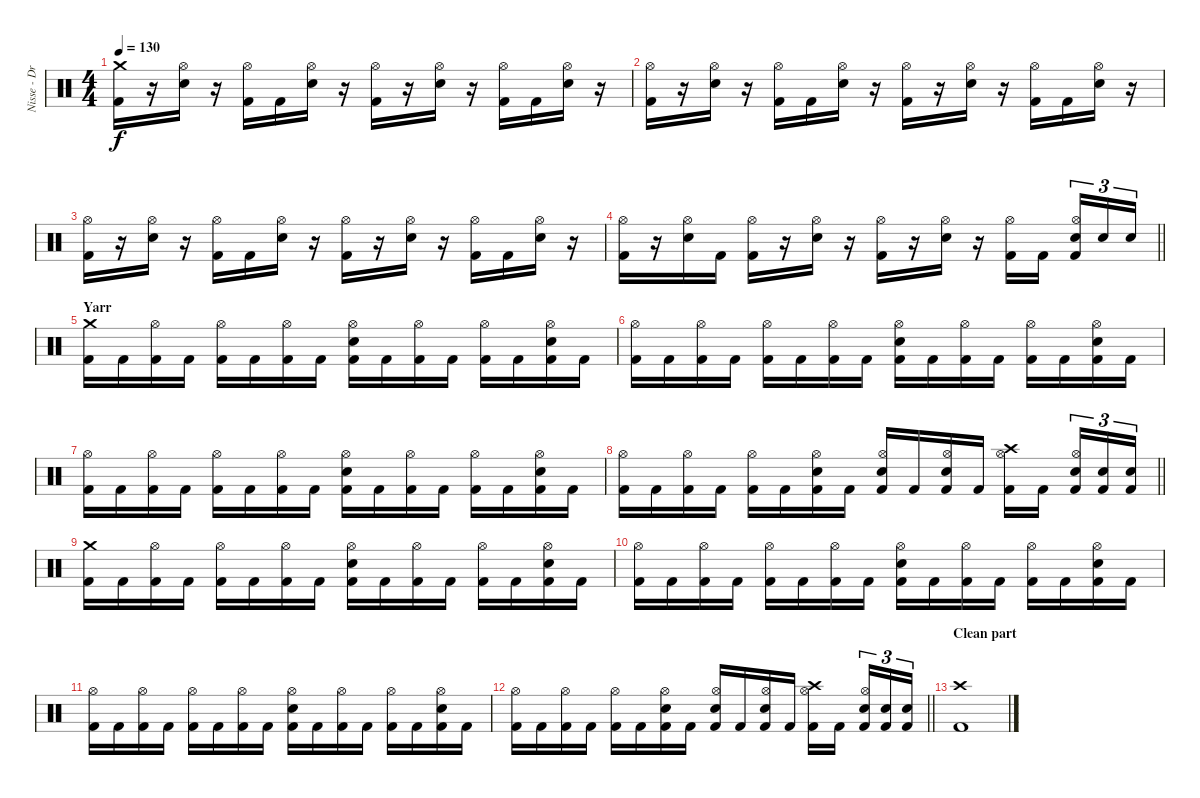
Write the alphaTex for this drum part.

\track ("Nisse - Drums" "Nisse - Dr") {instrument percussion}
\staff {score}
\articulation defaults
\ts (4 4)
\tempo 130
\clef neutral
\ks c
("Crash medium (hit)" "Kick (hit) 2").16{dy f} r.16 ("Hi-Hat (open)" "Electric Snare (hit)").16 r.16 ("Hi-Hat (open)" "Kick (hit) 2").16 "Kick (hit) 2".16 ("Hi-Hat (open)" "Electric Snare (hit)").16 r.16 ("Hi-Hat (open)" "Kick (hit) 2").16 r.16 ("Hi-Hat (open)" "Electric Snare (hit)").16 r.16 ("Hi-Hat (open)" "Kick (hit) 2").16 "Kick (hit) 2".16 ("Hi-Hat (open)" "Electric Snare (hit)").16 r.16 |
("Hi-Hat (open)" "Kick (hit) 2").16 r.16 ("Hi-Hat (open)" "Electric Snare (hit)").16 r.16 ("Hi-Hat (open)" "Kick (hit) 2").16 "Kick (hit) 2".16 ("Hi-Hat (open)" "Electric Snare (hit)").16 r.16 ("Hi-Hat (open)" "Kick (hit) 2").16 r.16 ("Hi-Hat (open)" "Electric Snare (hit)").16 r.16 ("Hi-Hat (open)" "Kick (hit) 2").16 "Kick (hit) 2".16 ("Hi-Hat (open)" "Electric Snare (hit)").16 r.16 |
("Hi-Hat (open)" "Kick (hit) 2").16 r.16 ("Hi-Hat (open)" "Electric Snare (hit)").16 r.16 ("Hi-Hat (open)" "Kick (hit) 2").16 "Kick (hit) 2".16 ("Hi-Hat (open)" "Electric Snare (hit)").16 r.16 ("Hi-Hat (open)" "Kick (hit) 2").16 r.16 ("Hi-Hat (open)" "Electric Snare (hit)").16 r.16 ("Hi-Hat (open)" "Kick (hit) 2").16 "Kick (hit) 2".16 ("Hi-Hat (open)" "Electric Snare (hit)").16 r.16 |
\barLineRight lightlight
("Hi-Hat (open)" "Kick (hit) 2").16 r.16 ("Hi-Hat (open)" "Electric Snare (hit)").16 "Kick (hit) 2".16 ("Hi-Hat (open)" "Kick (hit) 2").16 r.16 ("Hi-Hat (open)" "Electric Snare (hit)").16 r.16 ("Hi-Hat (open)" "Kick (hit) 2").16 r.16 ("Hi-Hat (open)" "Electric Snare (hit)").16 r.16 ("Hi-Hat (open)" "Kick (hit) 2").16 "Kick (hit) 2".16{beam splitsecondary} ("Hi-Hat (open)" "Electric Snare (hit)" "Kick (hit) 2").16{tu (3 2)} "Electric Snare (hit)".16{tu (3 2)} "Electric Snare (hit)".16{tu (3 2)} |
\section ("" "Yarr")
("Crash medium (hit)" "Kick (hit) 2").16 "Kick (hit) 2".16 ("Hi-Hat (open)" "Kick (hit) 2").16 "Kick (hit) 2".16 ("Hi-Hat (open)" "Kick (hit) 2").16 "Kick (hit) 2".16 ("Hi-Hat (open)" "Kick (hit) 2").16 "Kick (hit) 2".16 ("Hi-Hat (open)" "Electric Snare (hit)" "Kick (hit) 2").16 "Kick (hit) 2".16 ("Hi-Hat (open)" "Kick (hit) 2").16 "Kick (hit) 2".16 ("Hi-Hat (open)" "Kick (hit) 2").16 "Kick (hit) 2".16 ("Hi-Hat (open)" "Electric Snare (hit)" "Kick (hit) 2").16 "Kick (hit) 2".16 |
("Hi-Hat (open)" "Kick (hit) 2").16 "Kick (hit) 2".16 ("Hi-Hat (open)" "Kick (hit) 2").16 "Kick (hit) 2".16 ("Hi-Hat (open)" "Kick (hit) 2").16 "Kick (hit) 2".16 ("Hi-Hat (open)" "Kick (hit) 2").16 "Kick (hit) 2".16 ("Hi-Hat (open)" "Electric Snare (hit)" "Kick (hit) 2").16 "Kick (hit) 2".16 ("Hi-Hat (open)" "Kick (hit) 2").16 "Kick (hit) 2".16 ("Hi-Hat (open)" "Kick (hit) 2").16 "Kick (hit) 2".16 ("Hi-Hat (open)" "Electric Snare (hit)" "Kick (hit) 2").16 "Kick (hit) 2".16 |
("Hi-Hat (open)" "Kick (hit) 2").16 "Kick (hit) 2".16 ("Hi-Hat (open)" "Kick (hit) 2").16 "Kick (hit) 2".16 ("Hi-Hat (open)" "Kick (hit) 2").16 "Kick (hit) 2".16 ("Hi-Hat (open)" "Kick (hit) 2").16 "Kick (hit) 2".16 ("Hi-Hat (open)" "Electric Snare (hit)" "Kick (hit) 2").16 "Kick (hit) 2".16 ("Hi-Hat (open)" "Kick (hit) 2").16 "Kick (hit) 2".16 ("Hi-Hat (open)" "Kick (hit) 2").16 "Kick (hit) 2".16 ("Hi-Hat (open)" "Electric Snare (hit)" "Kick (hit) 2").16 "Kick (hit) 2".16 |
\barLineRight lightlight
("Hi-Hat (open)" "Kick (hit) 2").16 "Kick (hit) 2".16 ("Hi-Hat (open)" "Kick (hit) 2").16 "Kick (hit) 2".16 ("Hi-Hat (open)" "Kick (hit) 2").16 "Kick (hit) 2".16 ("Hi-Hat (open)" "Electric Snare (hit)" "Kick (hit) 2").16 "Kick (hit) 2".16 ("Hi-Hat (open)" "Electric Snare (hit)" "Kick (hit) 2").16 "Kick (hit) 2".16 ("Hi-Hat (open)" "Electric Snare (hit)" "Kick (hit) 2").16 "Kick (hit) 2".16 ("Hi-Hat (open)" "Crash high (hit)" "Kick (hit) 2").16 "Kick (hit) 2".16{beam splitsecondary} ("Hi-Hat (open)" "Electric Snare (hit)" "Kick (hit) 2").16{tu (3 2)} ("Electric Snare (hit)" "Kick (hit) 2").16{tu (3 2)} ("Electric Snare (hit)" "Kick (hit) 2").16{tu (3 2)} |
("Crash medium (hit)" "Kick (hit) 2").16 "Kick (hit) 2".16 ("Hi-Hat (open)" "Kick (hit) 2").16 "Kick (hit) 2".16 ("Hi-Hat (open)" "Kick (hit) 2").16 "Kick (hit) 2".16 ("Hi-Hat (open)" "Kick (hit) 2").16 "Kick (hit) 2".16 ("Hi-Hat (open)" "Electric Snare (hit)" "Kick (hit) 2").16 "Kick (hit) 2".16 ("Hi-Hat (open)" "Kick (hit) 2").16 "Kick (hit) 2".16 ("Hi-Hat (open)" "Kick (hit) 2").16 "Kick (hit) 2".16 ("Hi-Hat (open)" "Electric Snare (hit)" "Kick (hit) 2").16 "Kick (hit) 2".16 |
("Hi-Hat (open)" "Kick (hit) 2").16 "Kick (hit) 2".16 ("Hi-Hat (open)" "Kick (hit) 2").16 "Kick (hit) 2".16 ("Hi-Hat (open)" "Kick (hit) 2").16 "Kick (hit) 2".16 ("Hi-Hat (open)" "Kick (hit) 2").16 "Kick (hit) 2".16 ("Hi-Hat (open)" "Electric Snare (hit)" "Kick (hit) 2").16 "Kick (hit) 2".16 ("Hi-Hat (open)" "Kick (hit) 2").16 "Kick (hit) 2".16 ("Hi-Hat (open)" "Kick (hit) 2").16 "Kick (hit) 2".16 ("Hi-Hat (open)" "Electric Snare (hit)" "Kick (hit) 2").16 "Kick (hit) 2".16 |
("Hi-Hat (open)" "Kick (hit) 2").16 "Kick (hit) 2".16 ("Hi-Hat (open)" "Kick (hit) 2").16 "Kick (hit) 2".16 ("Hi-Hat (open)" "Kick (hit) 2").16 "Kick (hit) 2".16 ("Hi-Hat (open)" "Kick (hit) 2").16 "Kick (hit) 2".16 ("Hi-Hat (open)" "Electric Snare (hit)" "Kick (hit) 2").16 "Kick (hit) 2".16 ("Hi-Hat (open)" "Kick (hit) 2").16 "Kick (hit) 2".16 ("Hi-Hat (open)" "Kick (hit) 2").16 "Kick (hit) 2".16 ("Hi-Hat (open)" "Electric Snare (hit)" "Kick (hit) 2").16 "Kick (hit) 2".16 |
\barLineRight lightlight
("Hi-Hat (open)" "Kick (hit) 2").16 "Kick (hit) 2".16 ("Hi-Hat (open)" "Kick (hit) 2").16 "Kick (hit) 2".16 ("Hi-Hat (open)" "Kick (hit) 2").16 "Kick (hit) 2".16 ("Hi-Hat (open)" "Electric Snare (hit)" "Kick (hit) 2").16 "Kick (hit) 2".16 ("Hi-Hat (open)" "Electric Snare (hit)" "Kick (hit) 2").16 "Kick (hit) 2".16 ("Hi-Hat (open)" "Electric Snare (hit)" "Kick (hit) 2").16 "Kick (hit) 2".16 ("Hi-Hat (open)" "Crash high (hit)" "Kick (hit) 2").16 "Kick (hit) 2".16{beam splitsecondary} ("Hi-Hat (open)" "Electric Snare (hit)" "Kick (hit) 2").16{tu (3 2)} ("Electric Snare (hit)" "Kick (hit) 2").16{tu (3 2)} ("Electric Snare (hit)" "Kick (hit) 2").16{tu (3 2)} |
\section ("" "Clean part")
("Crash high (hit)" "Kick (hit) 2").1
